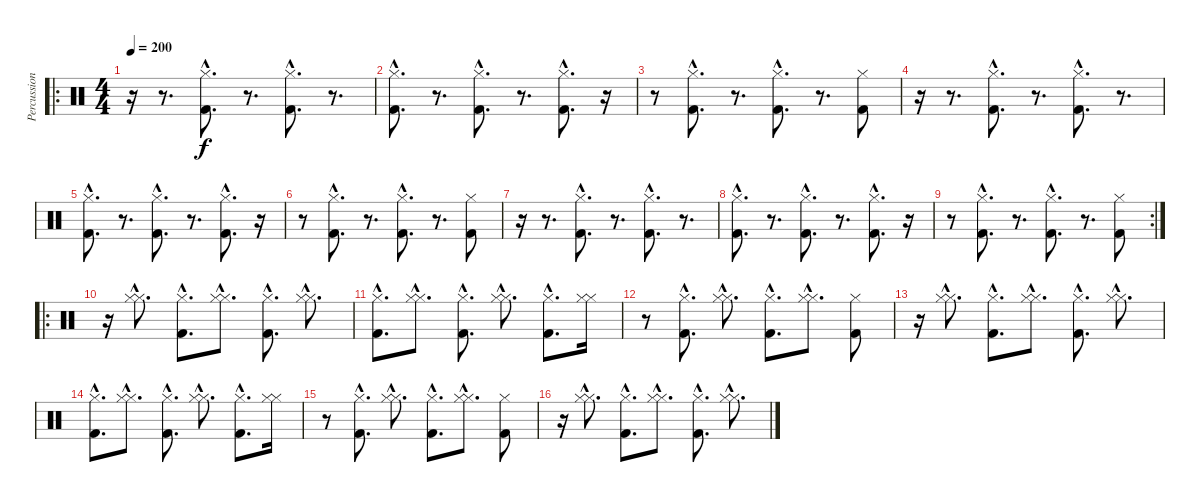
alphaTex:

\track ("Percussions" "Percussion") {instrument percussion}
\staff {score}
\articulation defaults
\ro
\ts (4 4)
\tempo 200
\clef neutral
\ks c
r.16{dy f} r.8{d} ("Kick (hit) 2"{hac} "Hi-Hat (closed)"{hac}).8{d} r.8{d} ("Kick (hit) 2"{hac} "Hi-Hat (closed)"{hac}).8{d} r.8{d} |
("Kick (hit) 2"{hac} "Hi-Hat (closed)"{hac}).8{d} r.8{d} ("Kick (hit) 2"{hac} "Hi-Hat (closed)"{hac}).8{d} r.8{d} ("Kick (hit) 2"{hac} "Hi-Hat (closed)"{hac}).8{d} r.16 |
r.8 ("Kick (hit) 2"{hac} "Hi-Hat (closed)"{hac}).8{d} r.8{d} ("Kick (hit) 2"{hac} "Hi-Hat (closed)"{hac}).8{d} r.8{d} ("Kick (hit) 2" "Hi-Hat (closed)").8 |
r.16 r.8{d} ("Kick (hit) 2"{hac} "Hi-Hat (closed)"{hac}).8{d} r.8{d} ("Kick (hit) 2"{hac} "Hi-Hat (closed)"{hac}).8{d} r.8{d} |
("Kick (hit) 2"{hac} "Hi-Hat (closed)"{hac}).8{d} r.8{d} ("Kick (hit) 2"{hac} "Hi-Hat (closed)"{hac}).8{d} r.8{d} ("Kick (hit) 2"{hac} "Hi-Hat (closed)"{hac}).8{d} r.16 |
r.8 ("Kick (hit) 2"{hac} "Hi-Hat (closed)"{hac}).8{d} r.8{d} ("Kick (hit) 2"{hac} "Hi-Hat (closed)"{hac}).8{d} r.8{d} ("Kick (hit) 2" "Hi-Hat (closed)").8 |
r.16 r.8{d} ("Kick (hit) 2"{hac} "Hi-Hat (closed)"{hac}).8{d} r.8{d} ("Kick (hit) 2"{hac} "Hi-Hat (closed)"{hac}).8{d} r.8{d} |
("Kick (hit) 2"{hac} "Hi-Hat (closed)"{hac}).8{d} r.8{d} ("Kick (hit) 2"{hac} "Hi-Hat (closed)"{hac}).8{d} r.8{d} ("Kick (hit) 2"{hac} "Hi-Hat (closed)"{hac}).8{d} r.16 |
\rc 2
r.8 ("Kick (hit) 2"{hac} "Hi-Hat (closed)"{hac}).8{d} r.8{d} ("Kick (hit) 2"{hac} "Hi-Hat (closed)"{hac}).8{d} r.8{d} ("Kick (hit) 2" "Hi-Hat (closed)").8 |
\ro
r.16 ("Hi-Hat (closed)"{hac} "Hi-Hat (closed)"{hac}).8{d} ("Kick (hit) 2"{hac} "Hi-Hat (closed)"{hac}).8{d} ("Hi-Hat (closed)"{hac} "Hi-Hat (closed)"{hac}).8{d} ("Kick (hit) 2"{hac} "Hi-Hat (closed)"{hac}).8{d} ("Hi-Hat (closed)"{hac} "Hi-Hat (closed)"{hac}).8{d} |
("Kick (hit) 2"{hac} "Hi-Hat (closed)"{hac}).8{d} ("Hi-Hat (closed)"{hac} "Hi-Hat (closed)"{hac}).8{d} ("Kick (hit) 2"{hac} "Hi-Hat (closed)"{hac}).8{d} ("Hi-Hat (closed)"{hac} "Hi-Hat (closed)"{hac}).8{d} ("Kick (hit) 2"{hac} "Hi-Hat (closed)"{hac}).8{d} ("Hi-Hat (closed)" "Hi-Hat (closed)").16 |
r.8 ("Kick (hit) 2"{hac} "Hi-Hat (closed)"{hac}).8{d} ("Hi-Hat (closed)"{hac} "Hi-Hat (closed)"{hac}).8{d} ("Kick (hit) 2"{hac} "Hi-Hat (closed)"{hac}).8{d} ("Hi-Hat (closed)"{hac} "Hi-Hat (closed)"{hac}).8{d} ("Kick (hit) 2" "Hi-Hat (closed)").8 |
r.16 ("Hi-Hat (closed)"{hac} "Hi-Hat (closed)"{hac}).8{d} ("Kick (hit) 2"{hac} "Hi-Hat (closed)"{hac}).8{d} ("Hi-Hat (closed)"{hac} "Hi-Hat (closed)"{hac}).8{d} ("Kick (hit) 2"{hac} "Hi-Hat (closed)"{hac}).8{d} ("Hi-Hat (closed)"{hac} "Hi-Hat (closed)"{hac}).8{d} |
("Kick (hit) 2"{hac} "Hi-Hat (closed)"{hac}).8{d} ("Hi-Hat (closed)"{hac} "Hi-Hat (closed)"{hac}).8{d} ("Kick (hit) 2"{hac} "Hi-Hat (closed)"{hac}).8{d} ("Hi-Hat (closed)"{hac} "Hi-Hat (closed)"{hac}).8{d} ("Kick (hit) 2"{hac} "Hi-Hat (closed)"{hac}).8{d} ("Hi-Hat (closed)" "Hi-Hat (closed)").16 |
r.8 ("Kick (hit) 2"{hac} "Hi-Hat (closed)"{hac}).8{d} ("Hi-Hat (closed)"{hac} "Hi-Hat (closed)"{hac}).8{d} ("Kick (hit) 2"{hac} "Hi-Hat (closed)"{hac}).8{d} ("Hi-Hat (closed)"{hac} "Hi-Hat (closed)"{hac}).8{d} ("Kick (hit) 2" "Hi-Hat (closed)").8 |
r.16 ("Hi-Hat (closed)"{hac} "Hi-Hat (closed)"{hac}).8{d} ("Kick (hit) 2"{hac} "Hi-Hat (closed)"{hac}).8{d} ("Hi-Hat (closed)"{hac} "Hi-Hat (closed)"{hac}).8{d} ("Kick (hit) 2"{hac} "Hi-Hat (closed)"{hac}).8{d} ("Hi-Hat (closed)"{hac} "Hi-Hat (closed)"{hac}).8{d}
